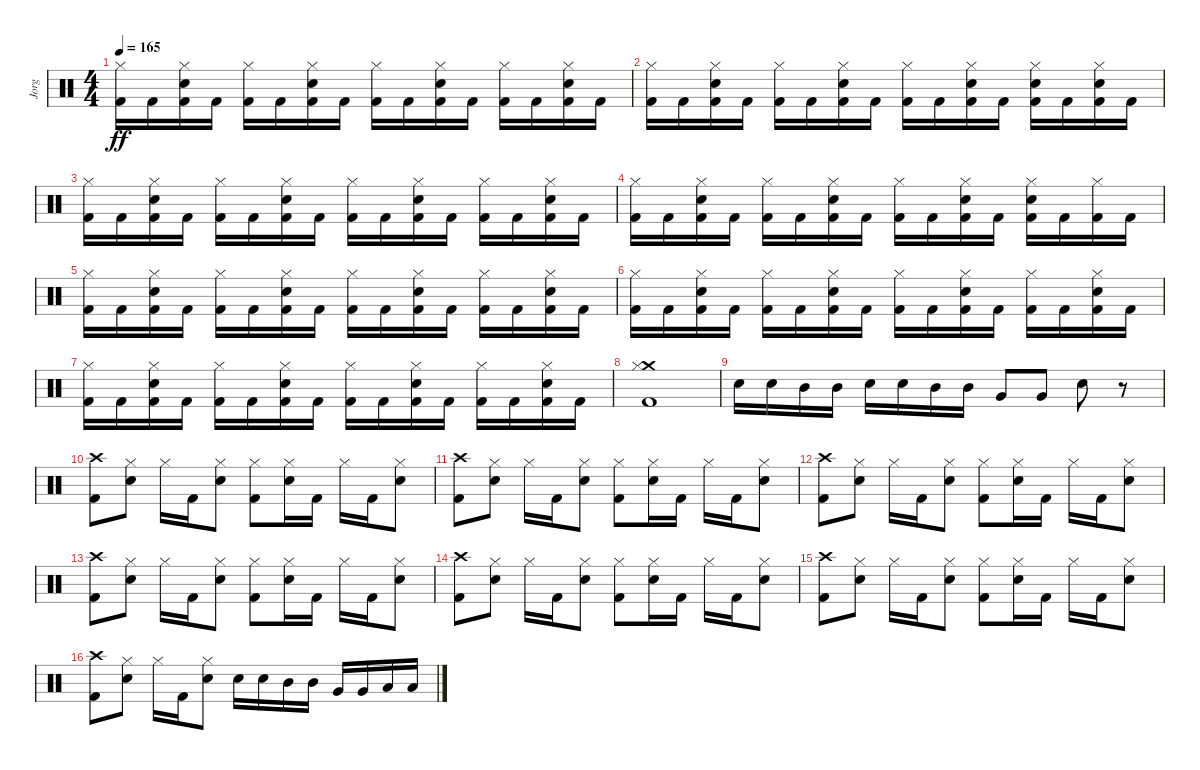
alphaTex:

\track ("Jorg" "Jorg") {instrument percussion}
\staff {score}
\articulation defaults
\ts (4 4)
\tempo 165
\clef neutral
\ks c
("Hi-Hat (closed)" "Kick (hit) 2").16{dy ff} "Kick (hit) 2".16 ("Hi-Hat (closed)" "Electric Snare (hit)" "Kick (hit) 2").16 "Kick (hit) 2".16 ("Hi-Hat (closed)" "Kick (hit) 2").16 "Kick (hit) 2".16 ("Hi-Hat (closed)" "Electric Snare (hit)" "Kick (hit) 2").16 "Kick (hit) 2".16 ("Hi-Hat (closed)" "Kick (hit) 2").16 "Kick (hit) 2".16 ("Hi-Hat (closed)" "Electric Snare (hit)" "Kick (hit) 2").16 "Kick (hit) 2".16 ("Hi-Hat (closed)" "Kick (hit) 2").16 "Kick (hit) 2".16 ("Hi-Hat (closed)" "Electric Snare (hit)" "Kick (hit) 2").16 "Kick (hit) 2".16 |
("Hi-Hat (closed)" "Kick (hit) 2").16 "Kick (hit) 2".16 ("Hi-Hat (closed)" "Electric Snare (hit)" "Kick (hit) 2").16 "Kick (hit) 2".16 ("Hi-Hat (closed)" "Kick (hit) 2").16 "Kick (hit) 2".16 ("Hi-Hat (closed)" "Electric Snare (hit)" "Kick (hit) 2").16 "Kick (hit) 2".16 ("Hi-Hat (closed)" "Kick (hit) 2").16 "Kick (hit) 2".16 ("Hi-Hat (closed)" "Electric Snare (hit)" "Kick (hit) 2").16 "Kick (hit) 2".16 ("Hi-Hat (closed)" "Electric Snare (hit)" "Kick (hit) 2").16 "Kick (hit) 2".16 ("Hi-Hat (closed)" "Electric Snare (hit)" "Kick (hit) 2").16 "Kick (hit) 2".16 |
("Hi-Hat (closed)" "Kick (hit) 2").16 "Kick (hit) 2".16 ("Hi-Hat (closed)" "Electric Snare (hit)" "Kick (hit) 2").16 "Kick (hit) 2".16 ("Hi-Hat (closed)" "Kick (hit) 2").16 "Kick (hit) 2".16 ("Hi-Hat (closed)" "Electric Snare (hit)" "Kick (hit) 2").16 "Kick (hit) 2".16 ("Hi-Hat (closed)" "Kick (hit) 2").16 "Kick (hit) 2".16 ("Hi-Hat (closed)" "Electric Snare (hit)" "Kick (hit) 2").16 "Kick (hit) 2".16 ("Hi-Hat (closed)" "Kick (hit) 2").16 "Kick (hit) 2".16 ("Hi-Hat (closed)" "Electric Snare (hit)" "Kick (hit) 2").16 "Kick (hit) 2".16 |
("Hi-Hat (closed)" "Kick (hit) 2").16 "Kick (hit) 2".16 ("Hi-Hat (closed)" "Electric Snare (hit)" "Kick (hit) 2").16 "Kick (hit) 2".16 ("Hi-Hat (closed)" "Kick (hit) 2").16 "Kick (hit) 2".16 ("Hi-Hat (closed)" "Electric Snare (hit)" "Kick (hit) 2").16 "Kick (hit) 2".16 ("Hi-Hat (closed)" "Kick (hit) 2").16 "Kick (hit) 2".16 ("Hi-Hat (closed)" "Electric Snare (hit)" "Kick (hit) 2").16 "Kick (hit) 2".16 ("Hi-Hat (closed)" "Electric Snare (hit)" "Kick (hit) 2").16 "Kick (hit) 2".16 ("Hi-Hat (closed)" "Kick (hit) 2").16 "Kick (hit) 2".16 |
("Hi-Hat (closed)" "Kick (hit) 2").16 "Kick (hit) 2".16 ("Hi-Hat (closed)" "Electric Snare (hit)" "Kick (hit) 2").16 "Kick (hit) 2".16 ("Hi-Hat (closed)" "Kick (hit) 2").16 "Kick (hit) 2".16 ("Hi-Hat (closed)" "Electric Snare (hit)" "Kick (hit) 2").16 "Kick (hit) 2".16 ("Hi-Hat (closed)" "Kick (hit) 2").16 "Kick (hit) 2".16 ("Hi-Hat (closed)" "Electric Snare (hit)" "Kick (hit) 2").16 "Kick (hit) 2".16 ("Hi-Hat (closed)" "Kick (hit) 2").16 "Kick (hit) 2".16 ("Hi-Hat (closed)" "Electric Snare (hit)" "Kick (hit) 2").16 "Kick (hit) 2".16 |
("Hi-Hat (closed)" "Kick (hit) 2").16 "Kick (hit) 2".16 ("Hi-Hat (closed)" "Electric Snare (hit)" "Kick (hit) 2").16 "Kick (hit) 2".16 ("Hi-Hat (closed)" "Kick (hit) 2").16 "Kick (hit) 2".16 ("Hi-Hat (closed)" "Electric Snare (hit)" "Kick (hit) 2").16 "Kick (hit) 2".16 ("Hi-Hat (closed)" "Kick (hit) 2").16 "Kick (hit) 2".16 ("Hi-Hat (closed)" "Electric Snare (hit)" "Kick (hit) 2").16 "Kick (hit) 2".16 ("Hi-Hat (closed)" "Kick (hit) 2").16 "Kick (hit) 2".16 ("Hi-Hat (closed)" "Electric Snare (hit)" "Kick (hit) 2").16 "Kick (hit) 2".16 |
("Hi-Hat (closed)" "Kick (hit) 2").16 "Kick (hit) 2".16 ("Hi-Hat (closed)" "Electric Snare (hit)" "Kick (hit) 2").16 "Kick (hit) 2".16 ("Hi-Hat (closed)" "Kick (hit) 2").16 "Kick (hit) 2".16 ("Hi-Hat (closed)" "Electric Snare (hit)" "Kick (hit) 2").16 "Kick (hit) 2".16 ("Hi-Hat (closed)" "Kick (hit) 2").16 "Kick (hit) 2".16 ("Hi-Hat (closed)" "Electric Snare (hit)" "Kick (hit) 2").16 "Kick (hit) 2".16 ("Hi-Hat (closed)" "Kick (hit) 2").16 "Kick (hit) 2".16 ("Hi-Hat (closed)" "Electric Snare (hit)" "Kick (hit) 2").16 "Kick (hit) 2".16 |
("Crash medium (hit)" "Hi-Hat (closed)" "Kick (hit) 2").1 |
"Electric Snare (hit)".16 "Electric Snare (hit)".16 "Mid Tom (hit)".16 "Mid Tom (hit)".16 "Electric Snare (hit)".16 "Electric Snare (hit)".16 "Mid Tom (hit)".16 "Mid Tom (hit)".16 "Very Low Tom (hit)".8 "Very Low Tom (hit)".8 "Electric Snare (hit)".8 r.8 |
("Kick (hit) 2" "Crash high (hit)").8 ("Snare (hit) 2" "Hi-Hat (closed)").8 "Hi-Hat (closed)".16 "Kick (hit) 2".16 ("Snare (hit) 2" "Hi-Hat (closed)").8 ("Kick (hit) 2" "Hi-Hat (closed)").8 ("Snare (hit) 2" "Hi-Hat (closed)").16 "Kick (hit) 2".16 "Hi-Hat (closed)".16 "Kick (hit) 2".16 ("Snare (hit) 2" "Hi-Hat (closed)").8 |
("Kick (hit) 2" "Crash high (hit)").8 ("Snare (hit) 2" "Hi-Hat (closed)").8 "Hi-Hat (closed)".16 "Kick (hit) 2".16 ("Snare (hit) 2" "Hi-Hat (closed)").8 ("Kick (hit) 2" "Hi-Hat (closed)").8 ("Snare (hit) 2" "Hi-Hat (closed)").16 "Kick (hit) 2".16 "Hi-Hat (closed)".16 "Kick (hit) 2".16 ("Snare (hit) 2" "Hi-Hat (closed)").8 |
("Kick (hit) 2" "Crash high (hit)").8 ("Snare (hit) 2" "Hi-Hat (closed)").8 "Hi-Hat (closed)".16 "Kick (hit) 2".16 ("Snare (hit) 2" "Hi-Hat (closed)").8 ("Kick (hit) 2" "Hi-Hat (closed)").8 ("Snare (hit) 2" "Hi-Hat (closed)").16 "Kick (hit) 2".16 "Hi-Hat (closed)".16 "Kick (hit) 2".16 ("Snare (hit) 2" "Hi-Hat (closed)").8 |
("Kick (hit) 2" "Crash high (hit)").8 ("Snare (hit) 2" "Hi-Hat (closed)").8 "Hi-Hat (closed)".16 "Kick (hit) 2".16 ("Snare (hit) 2" "Hi-Hat (closed)").8 ("Kick (hit) 2" "Hi-Hat (closed)").8 ("Snare (hit) 2" "Hi-Hat (closed)").16 "Kick (hit) 2".16 "Hi-Hat (closed)".16 "Kick (hit) 2".16 ("Snare (hit) 2" "Hi-Hat (closed)").8 |
("Kick (hit) 2" "Crash high (hit)").8 ("Snare (hit) 2" "Hi-Hat (closed)").8 "Hi-Hat (closed)".16 "Kick (hit) 2".16 ("Snare (hit) 2" "Hi-Hat (closed)").8 ("Kick (hit) 2" "Hi-Hat (closed)").8 ("Snare (hit) 2" "Hi-Hat (closed)").16 "Kick (hit) 2".16 "Hi-Hat (closed)".16 "Kick (hit) 2".16 ("Snare (hit) 2" "Hi-Hat (closed)").8 |
("Kick (hit) 2" "Crash high (hit)").8 ("Snare (hit) 2" "Hi-Hat (closed)").8 "Hi-Hat (closed)".16 "Kick (hit) 2".16 ("Snare (hit) 2" "Hi-Hat (closed)").8 ("Kick (hit) 2" "Hi-Hat (closed)").8 ("Snare (hit) 2" "Hi-Hat (closed)").16 "Kick (hit) 2".16 "Hi-Hat (closed)".16 "Kick (hit) 2".16 ("Snare (hit) 2" "Hi-Hat (closed)").8 |
("Kick (hit) 2" "Crash high (hit)").8 ("Snare (hit) 2" "Hi-Hat (closed)").8 "Hi-Hat (closed)".16 "Kick (hit) 2".16 ("Snare (hit) 2" "Hi-Hat (closed)").8 "Electric Snare (hit)".16 "Electric Snare (hit)".16 "Mid Tom (hit)".16 "Mid Tom (hit)".16 "Very Low Tom (hit)".16 "Very Low Tom (hit)".16 "Low Floor Tom (hit)".16 "Low Floor Tom (hit)".16
